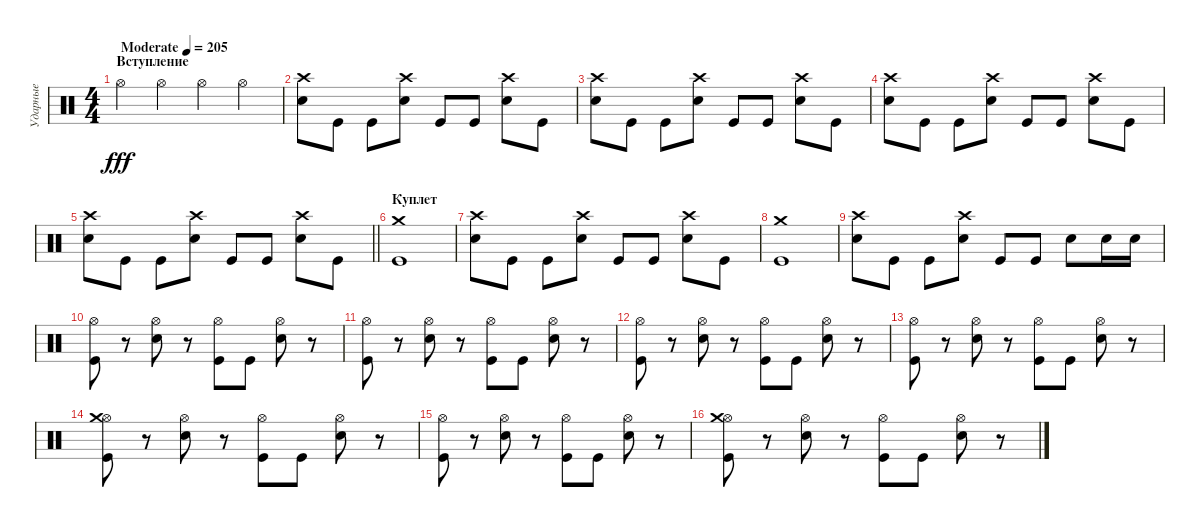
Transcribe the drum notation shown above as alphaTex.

\track ("Ударные" "Ударные") {instrument percussion}
\staff {score}
\articulation defaults
\ts (4 4)
\section ("" "Вступление")
\tempo (205 "Moderate")
\clef neutral
\ks c "Hi-Hat (open)".4{dy fff} "Hi-Hat (open)".4 "Hi-Hat (open)".4 "Hi-Hat (open)".4
|
("Crash high (hit)" "Electric Snare (hit)").8 "Kick (hit)".8 "Kick (hit)".8 ("Crash high (hit)" "Electric Snare (hit)").8 "Kick (hit)".8 "Kick (hit)".8 ("Crash high (hit)" "Electric Snare (hit)").8 "Kick (hit)".8 |
("Crash high (hit)" "Electric Snare (hit)").8 "Kick (hit)".8 "Kick (hit)".8 ("Crash high (hit)" "Electric Snare (hit)").8 "Kick (hit)".8 "Kick (hit)".8 ("Crash high (hit)" "Electric Snare (hit)").8 "Kick (hit)".8 |
("Crash high (hit)" "Electric Snare (hit)").8 "Kick (hit)".8 "Kick (hit)".8 ("Crash high (hit)" "Electric Snare (hit)").8 "Kick (hit)".8 "Kick (hit)".8 ("Crash high (hit)" "Electric Snare (hit)").8 "Kick (hit)".8 |
\barLineRight lightlight
("Crash high (hit)" "Electric Snare (hit)").8 "Kick (hit)".8 "Kick (hit)".8 ("Crash high (hit)" "Electric Snare (hit)").8 "Kick (hit)".8 "Kick (hit)".8 ("Crash high (hit)" "Electric Snare (hit)").8 "Kick (hit)".8 |
\section ("" "Куплет")
("Crash medium (hit)" "Kick (hit)").1 |
("Crash high (hit)" "Electric Snare (hit)").8 "Kick (hit)".8 "Kick (hit)".8 ("Crash high (hit)" "Electric Snare (hit)").8 "Kick (hit)".8 "Kick (hit)".8 ("Crash high (hit)" "Electric Snare (hit)").8 "Kick (hit)".8 |
("Crash medium (hit)" "Kick (hit)").1 |
("Crash high (hit)" "Electric Snare (hit)").8 "Kick (hit)".8 "Kick (hit)".8 ("Crash high (hit)" "Electric Snare (hit)").8 "Kick (hit)".8 "Kick (hit)".8 "Electric Snare (hit)".8 "Electric Snare (hit)".16 "Electric Snare (hit)".16 |
("Hi-Hat (open)" "Kick (hit)").8 r.8 ("Hi-Hat (open)" "Electric Snare (hit)").8 r.8 ("Hi-Hat (open)" "Kick (hit)").8 "Kick (hit)".8 ("Hi-Hat (open)" "Electric Snare (hit)").8 r.8 |
("Hi-Hat (open)" "Kick (hit)").8 r.8 ("Hi-Hat (open)" "Electric Snare (hit)").8 r.8 ("Hi-Hat (open)" "Kick (hit)").8 "Kick (hit)".8 ("Hi-Hat (open)" "Electric Snare (hit)").8 r.8 |
("Hi-Hat (open)" "Kick (hit)").8 r.8 ("Hi-Hat (open)" "Electric Snare (hit)").8 r.8 ("Hi-Hat (open)" "Kick (hit)").8 "Kick (hit)".8 ("Hi-Hat (open)" "Electric Snare (hit)").8 r.8 |
("Hi-Hat (open)" "Kick (hit)").8 r.8 ("Hi-Hat (open)" "Electric Snare (hit)").8 r.8 ("Hi-Hat (open)" "Kick (hit)").8 "Kick (hit)".8 ("Hi-Hat (open)" "Electric Snare (hit)").8 r.8 |
("Hi-Hat (open)" "Kick (hit)" "Crash medium (hit)").8 r.8 ("Hi-Hat (open)" "Electric Snare (hit)").8 r.8 ("Hi-Hat (open)" "Kick (hit)").8 "Kick (hit)".8 ("Hi-Hat (open)" "Electric Snare (hit)").8 r.8 |
("Hi-Hat (open)" "Kick (hit)").8 r.8 ("Hi-Hat (open)" "Electric Snare (hit)").8 r.8 ("Hi-Hat (open)" "Kick (hit)").8 "Kick (hit)".8 ("Hi-Hat (open)" "Electric Snare (hit)").8 r.8 |
("Hi-Hat (open)" "Kick (hit)" "Crash medium (hit)").8 r.8 ("Hi-Hat (open)" "Electric Snare (hit)").8 r.8 ("Hi-Hat (open)" "Kick (hit)").8 "Kick (hit)".8 ("Hi-Hat (open)" "Electric Snare (hit)").8 r.8
